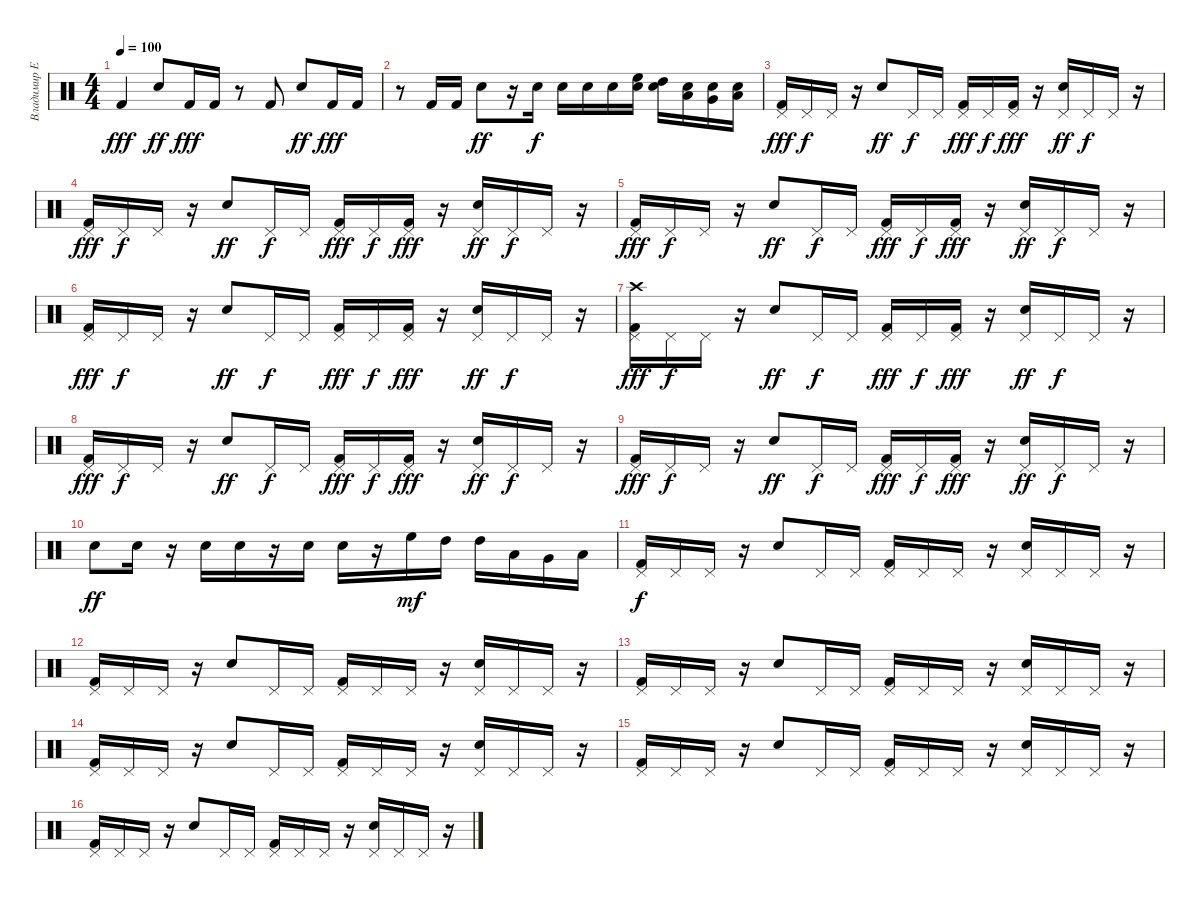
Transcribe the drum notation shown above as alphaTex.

\track ("Владимир Ермаков" "Владимир Е") {instrument percussion}
\staff {score}
\articulation defaults
\ts (4 4)
\tempo 100
\clef neutral
\ks c "Kick (hit) 2".4{dy fff} "Electric Snare (hit)".8{dy ff} "Kick (hit) 2".16{dy fff} "Kick (hit) 2".16
r.8 "Kick (hit) 2".8 "Electric Snare (hit)".8{dy ff} "Kick (hit) 2".16{dy fff} "Kick (hit) 2".16 |
r.8 "Kick (hit) 2".16 "Kick (hit) 2".16 "Electric Snare (hit)".8{dy ff} r.16 "Electric Snare (hit)".16{dy f} "Electric Snare (hit)".16 "Electric Snare (hit)".16 "Electric Snare (hit)".16 ("High Floor Tom (hit)" "Electric Snare (hit)").16 ("High Tom (hit)" "Electric Snare (hit)").16 ("Low Tom (hit)" "Electric Snare (hit)").16 ("Very Low Tom (hit)" "Electric Snare (hit)").16 ("Low Floor Tom (hit)" "Electric Snare (hit)").16 |
("Kick (hit) 2" "Pedal Hi-Hat (hit)").16{dy fff} "Pedal Hi-Hat (hit)".16{dy f} "Pedal Hi-Hat (hit)".16 r.16 "Electric Snare (hit)".8{dy ff} "Pedal Hi-Hat (hit)".16{dy f} "Pedal Hi-Hat (hit)".16 ("Kick (hit) 2" "Pedal Hi-Hat (hit)").16{dy fff} "Pedal Hi-Hat (hit)".16{dy f} ("Kick (hit) 2" "Pedal Hi-Hat (hit)").16{dy fff} r.16 ("Electric Snare (hit)" "Pedal Hi-Hat (hit)").16{dy ff} "Pedal Hi-Hat (hit)".16{dy f} "Pedal Hi-Hat (hit)".16 r.16 |
("Kick (hit) 2" "Pedal Hi-Hat (hit)").16{dy fff} "Pedal Hi-Hat (hit)".16{dy f} "Pedal Hi-Hat (hit)".16 r.16 "Electric Snare (hit)".8{dy ff} "Pedal Hi-Hat (hit)".16{dy f} "Pedal Hi-Hat (hit)".16 ("Kick (hit) 2" "Pedal Hi-Hat (hit)").16{dy fff} "Pedal Hi-Hat (hit)".16{dy f} ("Kick (hit) 2" "Pedal Hi-Hat (hit)").16{dy fff} r.16 ("Electric Snare (hit)" "Pedal Hi-Hat (hit)").16{dy ff} "Pedal Hi-Hat (hit)".16{dy f} "Pedal Hi-Hat (hit)".16 r.16 |
("Kick (hit) 2" "Pedal Hi-Hat (hit)").16{dy fff} "Pedal Hi-Hat (hit)".16{dy f} "Pedal Hi-Hat (hit)".16 r.16 "Electric Snare (hit)".8{dy ff} "Pedal Hi-Hat (hit)".16{dy f} "Pedal Hi-Hat (hit)".16 ("Kick (hit) 2" "Pedal Hi-Hat (hit)").16{dy fff} "Pedal Hi-Hat (hit)".16{dy f} ("Kick (hit) 2" "Pedal Hi-Hat (hit)").16{dy fff} r.16 ("Electric Snare (hit)" "Pedal Hi-Hat (hit)").16{dy ff} "Pedal Hi-Hat (hit)".16{dy f} "Pedal Hi-Hat (hit)".16 r.16 |
("Kick (hit) 2" "Pedal Hi-Hat (hit)").16{dy fff} "Pedal Hi-Hat (hit)".16{dy f} "Pedal Hi-Hat (hit)".16 r.16 "Electric Snare (hit)".8{dy ff} "Pedal Hi-Hat (hit)".16{dy f} "Pedal Hi-Hat (hit)".16 ("Kick (hit) 2" "Pedal Hi-Hat (hit)").16{dy fff} "Pedal Hi-Hat (hit)".16{dy f} ("Kick (hit) 2" "Pedal Hi-Hat (hit)").16{dy fff} r.16 ("Electric Snare (hit)" "Pedal Hi-Hat (hit)").16{dy ff} "Pedal Hi-Hat (hit)".16{dy f} "Pedal Hi-Hat (hit)".16 r.16 |
("Crash high (hit)" "Kick (hit) 2" "Pedal Hi-Hat (hit)").16{dy fff} "Pedal Hi-Hat (hit)".16{dy f} "Pedal Hi-Hat (hit)".16 r.16 "Electric Snare (hit)".8{dy ff} "Pedal Hi-Hat (hit)".16{dy f} "Pedal Hi-Hat (hit)".16 ("Kick (hit) 2" "Pedal Hi-Hat (hit)").16{dy fff} "Pedal Hi-Hat (hit)".16{dy f} ("Kick (hit) 2" "Pedal Hi-Hat (hit)").16{dy fff} r.16 ("Electric Snare (hit)" "Pedal Hi-Hat (hit)").16{dy ff} "Pedal Hi-Hat (hit)".16{dy f} "Pedal Hi-Hat (hit)".16 r.16 |
("Kick (hit) 2" "Pedal Hi-Hat (hit)").16{dy fff} "Pedal Hi-Hat (hit)".16{dy f} "Pedal Hi-Hat (hit)".16 r.16 "Electric Snare (hit)".8{dy ff} "Pedal Hi-Hat (hit)".16{dy f} "Pedal Hi-Hat (hit)".16 ("Kick (hit) 2" "Pedal Hi-Hat (hit)").16{dy fff} "Pedal Hi-Hat (hit)".16{dy f} ("Kick (hit) 2" "Pedal Hi-Hat (hit)").16{dy fff} r.16 ("Electric Snare (hit)" "Pedal Hi-Hat (hit)").16{dy ff} "Pedal Hi-Hat (hit)".16{dy f} "Pedal Hi-Hat (hit)".16 r.16 |
("Kick (hit) 2" "Pedal Hi-Hat (hit)").16{dy fff} "Pedal Hi-Hat (hit)".16{dy f} "Pedal Hi-Hat (hit)".16 r.16 "Electric Snare (hit)".8{dy ff} "Pedal Hi-Hat (hit)".16{dy f} "Pedal Hi-Hat (hit)".16 ("Kick (hit) 2" "Pedal Hi-Hat (hit)").16{dy fff} "Pedal Hi-Hat (hit)".16{dy f} ("Kick (hit) 2" "Pedal Hi-Hat (hit)").16{dy fff} r.16 ("Electric Snare (hit)" "Pedal Hi-Hat (hit)").16{dy ff} "Pedal Hi-Hat (hit)".16{dy f} "Pedal Hi-Hat (hit)".16 r.16 |
"Electric Snare (hit)".8{dy ff} "Electric Snare (hit)".16 r.16 "Electric Snare (hit)".16 "Electric Snare (hit)".16 r.16 "Electric Snare (hit)".16 "Electric Snare (hit)".16 r.16 "High Floor Tom (hit)".16{dy mf} "High Tom (hit)".16 "High Tom (hit)".16 "Low Tom (hit)".16 "Very Low Tom (hit)".16 "Low Floor Tom (hit)".16 |
("Kick (hit) 2" "Pedal Hi-Hat (hit)").16{dy f} "Pedal Hi-Hat (hit)".16 "Pedal Hi-Hat (hit)".16 r.16 "Electric Snare (hit)".8 "Pedal Hi-Hat (hit)".16 "Pedal Hi-Hat (hit)".16 ("Kick (hit) 2" "Pedal Hi-Hat (hit)").16 "Pedal Hi-Hat (hit)".16 "Pedal Hi-Hat (hit)".16 r.16 ("Electric Snare (hit)" "Pedal Hi-Hat (hit)").16 "Pedal Hi-Hat (hit)".16 "Pedal Hi-Hat (hit)".16 r.16 |
("Kick (hit) 2" "Pedal Hi-Hat (hit)").16 "Pedal Hi-Hat (hit)".16 "Pedal Hi-Hat (hit)".16 r.16 "Electric Snare (hit)".8 "Pedal Hi-Hat (hit)".16 "Pedal Hi-Hat (hit)".16 ("Kick (hit) 2" "Pedal Hi-Hat (hit)").16 "Pedal Hi-Hat (hit)".16 "Pedal Hi-Hat (hit)".16 r.16 ("Electric Snare (hit)" "Pedal Hi-Hat (hit)").16 "Pedal Hi-Hat (hit)".16 "Pedal Hi-Hat (hit)".16 r.16 |
("Kick (hit) 2" "Pedal Hi-Hat (hit)").16 "Pedal Hi-Hat (hit)".16 "Pedal Hi-Hat (hit)".16 r.16 "Electric Snare (hit)".8 "Pedal Hi-Hat (hit)".16 "Pedal Hi-Hat (hit)".16 ("Kick (hit) 2" "Pedal Hi-Hat (hit)").16 "Pedal Hi-Hat (hit)".16 "Pedal Hi-Hat (hit)".16 r.16 ("Electric Snare (hit)" "Pedal Hi-Hat (hit)").16 "Pedal Hi-Hat (hit)".16 "Pedal Hi-Hat (hit)".16 r.16 |
("Kick (hit) 2" "Pedal Hi-Hat (hit)").16 "Pedal Hi-Hat (hit)".16 "Pedal Hi-Hat (hit)".16 r.16 "Electric Snare (hit)".8 "Pedal Hi-Hat (hit)".16 "Pedal Hi-Hat (hit)".16 ("Kick (hit) 2" "Pedal Hi-Hat (hit)").16 "Pedal Hi-Hat (hit)".16 "Pedal Hi-Hat (hit)".16 r.16 ("Electric Snare (hit)" "Pedal Hi-Hat (hit)").16 "Pedal Hi-Hat (hit)".16 "Pedal Hi-Hat (hit)".16 r.16 |
("Kick (hit) 2" "Pedal Hi-Hat (hit)").16 "Pedal Hi-Hat (hit)".16 "Pedal Hi-Hat (hit)".16 r.16 "Electric Snare (hit)".8 "Pedal Hi-Hat (hit)".16 "Pedal Hi-Hat (hit)".16 ("Kick (hit) 2" "Pedal Hi-Hat (hit)").16 "Pedal Hi-Hat (hit)".16 "Pedal Hi-Hat (hit)".16 r.16 ("Electric Snare (hit)" "Pedal Hi-Hat (hit)").16 "Pedal Hi-Hat (hit)".16 "Pedal Hi-Hat (hit)".16 r.16 |
("Kick (hit) 2" "Pedal Hi-Hat (hit)").16 "Pedal Hi-Hat (hit)".16 "Pedal Hi-Hat (hit)".16 r.16 "Electric Snare (hit)".8 "Pedal Hi-Hat (hit)".16 "Pedal Hi-Hat (hit)".16 ("Kick (hit) 2" "Pedal Hi-Hat (hit)").16 "Pedal Hi-Hat (hit)".16 "Pedal Hi-Hat (hit)".16 r.16 ("Electric Snare (hit)" "Pedal Hi-Hat (hit)").16 "Pedal Hi-Hat (hit)".16 "Pedal Hi-Hat (hit)".16 r.16
